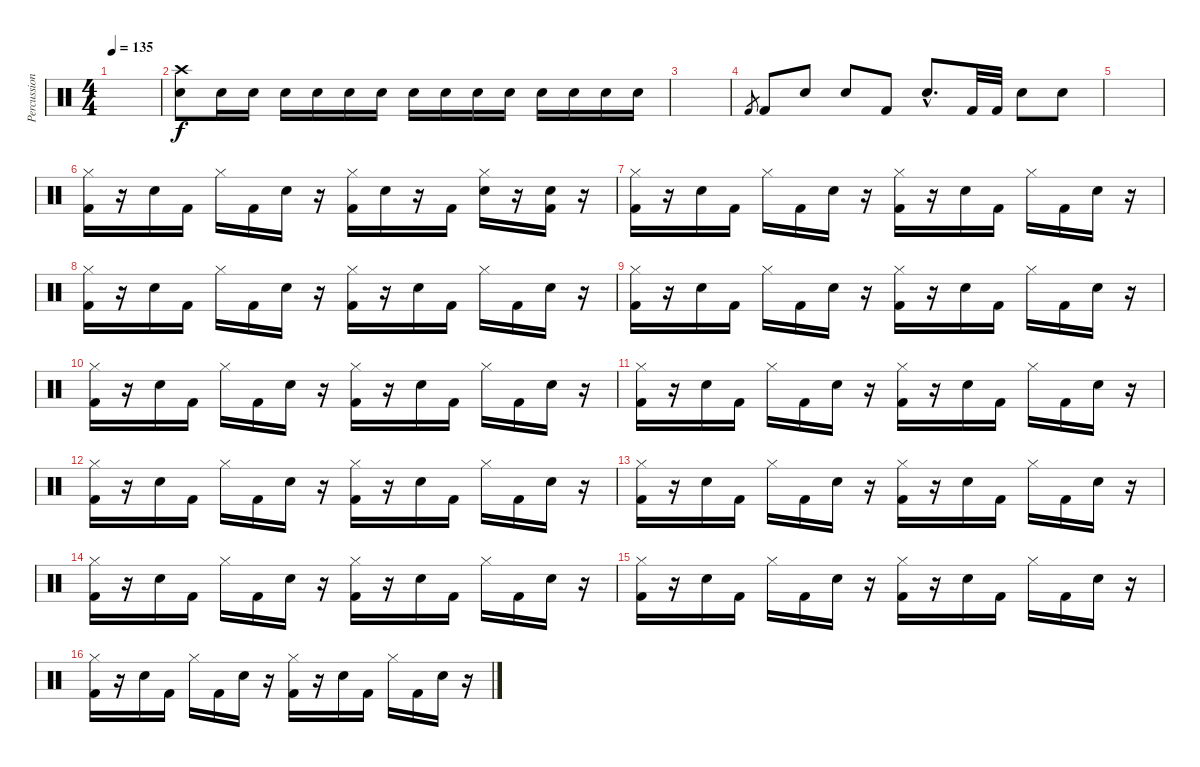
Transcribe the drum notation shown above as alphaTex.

\track ("Percussion" "Percussion") {instrument percussion}
\staff {score}
\articulation defaults
\ts (4 4)
\tempo 135
\clef neutral
\ks c
|
("Crash high (hit)" "Snare (hit) 2").8 "Snare (hit) 2".16 "Snare (hit) 2".16 "Snare (hit) 2".16 "Snare (hit) 2".16 "Snare (hit) 2".16 "Snare (hit) 2".16 "Snare (hit) 2".16 "Snare (hit) 2".16 "Snare (hit) 2".16 "Snare (hit) 2".16 "Snare (hit) 2".16 "Snare (hit) 2".16 "Snare (hit) 2".16 "Snare (hit) 2".16 |
|
"Kick (hit) 2".8{gr} "Kick (hit) 2".8 "Snare (hit) 2".8 "Snare (hit) 2".8 "Kick (hit) 2".8 "Snare (hit) 2"{hac}.8{d} "Kick (hit) 2".32 "Kick (hit) 2".32 "Snare (hit) 2".8 "Snare (hit) 2".8 |
|
("Hi-Hat (closed)" "Kick (hit) 2").16 r.16 "Snare (hit) 2".16 "Kick (hit) 2".16 "Hi-Hat (closed)".16 "Kick (hit) 2".16 "Snare (hit) 2".16 r.16 ("Hi-Hat (closed)" "Kick (hit) 2").16 "Snare (hit) 2".16 r.16 "Kick (hit) 2".16 ("Hi-Hat (closed)" "Snare (hit) 2").16 r.16 ("Snare (hit) 2" "Kick (hit) 2").16 r.16 |
("Hi-Hat (closed)" "Kick (hit) 2").16 r.16 "Snare (hit) 2".16 "Kick (hit) 2".16 "Hi-Hat (closed)".16 "Kick (hit) 2".16 "Snare (hit) 2".16 r.16 ("Hi-Hat (closed)" "Kick (hit) 2").16 r.16 "Snare (hit) 2".16 "Kick (hit) 2".16 "Hi-Hat (closed)".16 "Kick (hit) 2".16 "Snare (hit) 2".16 r.16 |
("Hi-Hat (closed)" "Kick (hit) 2").16 r.16 "Snare (hit) 2".16 "Kick (hit) 2".16 "Hi-Hat (closed)".16 "Kick (hit) 2".16 "Snare (hit) 2".16 r.16 ("Hi-Hat (closed)" "Kick (hit) 2").16 r.16 "Snare (hit) 2".16 "Kick (hit) 2".16 "Hi-Hat (closed)".16 "Kick (hit) 2".16 "Snare (hit) 2".16 r.16 |
("Hi-Hat (closed)" "Kick (hit) 2").16 r.16 "Snare (hit) 2".16 "Kick (hit) 2".16 "Hi-Hat (closed)".16 "Kick (hit) 2".16 "Snare (hit) 2".16 r.16 ("Hi-Hat (closed)" "Kick (hit) 2").16 r.16 "Snare (hit) 2".16 "Kick (hit) 2".16 "Hi-Hat (closed)".16 "Kick (hit) 2".16 "Snare (hit) 2".16 r.16 |
("Hi-Hat (closed)" "Kick (hit) 2").16 r.16 "Snare (hit) 2".16 "Kick (hit) 2".16 "Hi-Hat (closed)".16 "Kick (hit) 2".16 "Snare (hit) 2".16 r.16 ("Hi-Hat (closed)" "Kick (hit) 2").16 r.16 "Snare (hit) 2".16 "Kick (hit) 2".16 "Hi-Hat (closed)".16 "Kick (hit) 2".16 "Snare (hit) 2".16 r.16 |
("Hi-Hat (closed)" "Kick (hit) 2").16 r.16 "Snare (hit) 2".16 "Kick (hit) 2".16 "Hi-Hat (closed)".16 "Kick (hit) 2".16 "Snare (hit) 2".16 r.16 ("Hi-Hat (closed)" "Kick (hit) 2").16 r.16 "Snare (hit) 2".16 "Kick (hit) 2".16 "Hi-Hat (closed)".16 "Kick (hit) 2".16 "Snare (hit) 2".16 r.16 |
("Hi-Hat (closed)" "Kick (hit) 2").16 r.16 "Snare (hit) 2".16 "Kick (hit) 2".16 "Hi-Hat (closed)".16 "Kick (hit) 2".16 "Snare (hit) 2".16 r.16 ("Hi-Hat (closed)" "Kick (hit) 2").16 r.16 "Snare (hit) 2".16 "Kick (hit) 2".16 "Hi-Hat (closed)".16 "Kick (hit) 2".16 "Snare (hit) 2".16 r.16 |
("Hi-Hat (closed)" "Kick (hit) 2").16 r.16 "Snare (hit) 2".16 "Kick (hit) 2".16 "Hi-Hat (closed)".16 "Kick (hit) 2".16 "Snare (hit) 2".16 r.16 ("Hi-Hat (closed)" "Kick (hit) 2").16 r.16 "Snare (hit) 2".16 "Kick (hit) 2".16 "Hi-Hat (closed)".16 "Kick (hit) 2".16 "Snare (hit) 2".16 r.16 |
("Hi-Hat (closed)" "Kick (hit) 2").16 r.16 "Snare (hit) 2".16 "Kick (hit) 2".16 "Hi-Hat (closed)".16 "Kick (hit) 2".16 "Snare (hit) 2".16 r.16 ("Hi-Hat (closed)" "Kick (hit) 2").16 r.16 "Snare (hit) 2".16 "Kick (hit) 2".16 "Hi-Hat (closed)".16 "Kick (hit) 2".16 "Snare (hit) 2".16 r.16 |
("Hi-Hat (closed)" "Kick (hit) 2").16 r.16 "Snare (hit) 2".16 "Kick (hit) 2".16 "Hi-Hat (closed)".16 "Kick (hit) 2".16 "Snare (hit) 2".16 r.16 ("Hi-Hat (closed)" "Kick (hit) 2").16 r.16 "Snare (hit) 2".16 "Kick (hit) 2".16 "Hi-Hat (closed)".16 "Kick (hit) 2".16 "Snare (hit) 2".16 r.16 |
("Hi-Hat (closed)" "Kick (hit) 2").16 r.16 "Snare (hit) 2".16 "Kick (hit) 2".16 "Hi-Hat (closed)".16 "Kick (hit) 2".16 "Snare (hit) 2".16 r.16 ("Hi-Hat (closed)" "Kick (hit) 2").16 r.16 "Snare (hit) 2".16 "Kick (hit) 2".16 "Hi-Hat (closed)".16 "Kick (hit) 2".16 "Snare (hit) 2".16 r.16
